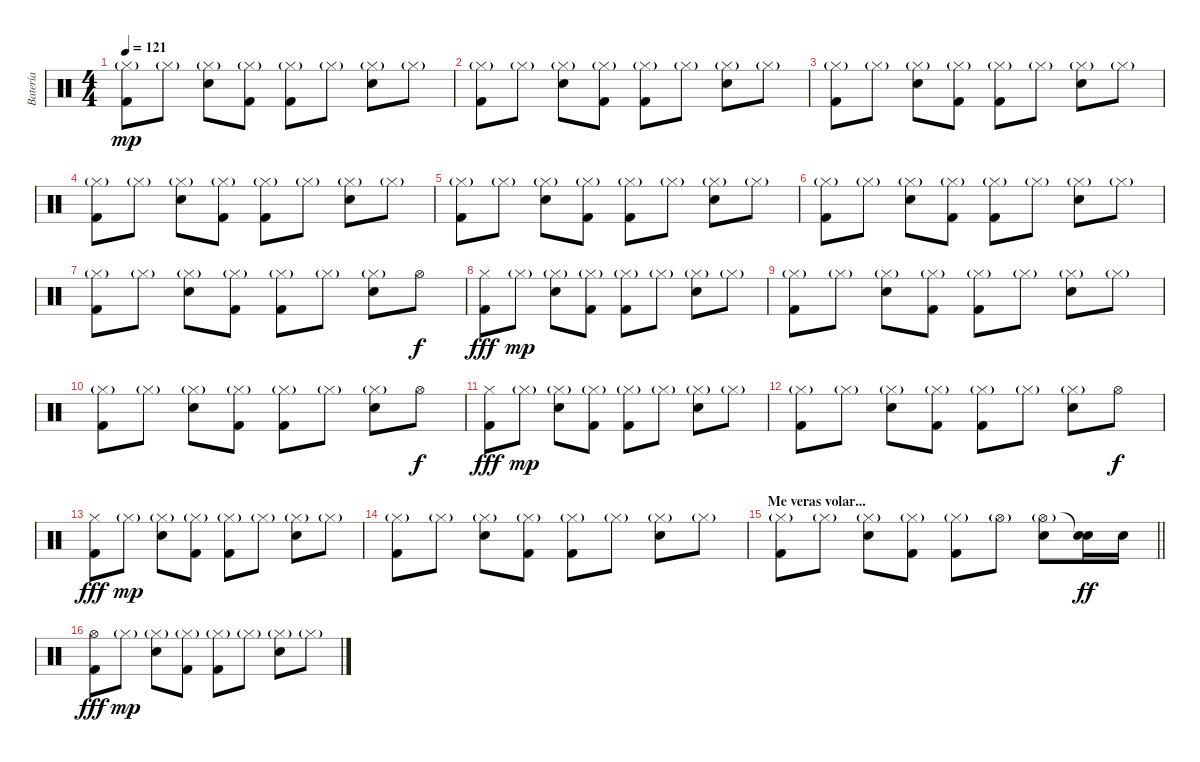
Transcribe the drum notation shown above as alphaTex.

\track ("Batería" "Batería") {instrument percussion}
\staff {score}
\articulation defaults
\ts (4 4)
\tempo 121
\clef neutral
\ks c
("Kick (hit) 2" "Hi-Hat (closed)"{g}).8{dy mp} "Hi-Hat (closed)"{g}.8 ("Snare (hit) 2" "Hi-Hat (closed)"{g}).8 ("Kick (hit) 2" "Hi-Hat (closed)"{g}).8 ("Kick (hit) 2" "Hi-Hat (closed)"{g}).8 "Hi-Hat (closed)"{g}.8 ("Snare (hit) 2" "Hi-Hat (closed)"{g}).8 "Hi-Hat (closed)"{g}.8 |
("Kick (hit) 2" "Hi-Hat (closed)"{g}).8 "Hi-Hat (closed)"{g}.8 ("Snare (hit) 2" "Hi-Hat (closed)"{g}).8 ("Kick (hit) 2" "Hi-Hat (closed)"{g}).8 ("Kick (hit) 2" "Hi-Hat (closed)"{g}).8 "Hi-Hat (closed)"{g}.8 ("Snare (hit) 2" "Hi-Hat (closed)"{g}).8 "Hi-Hat (closed)"{g}.8 |
("Kick (hit) 2" "Hi-Hat (closed)"{g}).8 "Hi-Hat (closed)"{g}.8 ("Snare (hit) 2" "Hi-Hat (closed)"{g}).8 ("Kick (hit) 2" "Hi-Hat (closed)"{g}).8 ("Kick (hit) 2" "Hi-Hat (closed)"{g}).8 "Hi-Hat (closed)"{g}.8 ("Snare (hit) 2" "Hi-Hat (closed)"{g}).8 "Hi-Hat (closed)"{g}.8 |
("Kick (hit) 2" "Hi-Hat (closed)"{g}).8 "Hi-Hat (closed)"{g}.8 ("Snare (hit) 2" "Hi-Hat (closed)"{g}).8 ("Kick (hit) 2" "Hi-Hat (closed)"{g}).8 ("Kick (hit) 2" "Hi-Hat (closed)"{g}).8 "Hi-Hat (closed)"{g}.8 ("Snare (hit) 2" "Hi-Hat (closed)"{g}).8 "Hi-Hat (closed)"{g}.8 |
("Kick (hit) 2" "Hi-Hat (closed)"{g}).8 "Hi-Hat (closed)"{g}.8 ("Snare (hit) 2" "Hi-Hat (closed)"{g}).8 ("Kick (hit) 2" "Hi-Hat (closed)"{g}).8 ("Kick (hit) 2" "Hi-Hat (closed)"{g}).8 "Hi-Hat (closed)"{g}.8 ("Snare (hit) 2" "Hi-Hat (closed)"{g}).8 "Hi-Hat (closed)"{g}.8 |
("Kick (hit) 2" "Hi-Hat (closed)"{g}).8 "Hi-Hat (closed)"{g}.8 ("Snare (hit) 2" "Hi-Hat (closed)"{g}).8 ("Kick (hit) 2" "Hi-Hat (closed)"{g}).8 ("Kick (hit) 2" "Hi-Hat (closed)"{g}).8 "Hi-Hat (closed)"{g}.8 ("Snare (hit) 2" "Hi-Hat (closed)"{g}).8 "Hi-Hat (closed)"{g}.8 |
("Kick (hit) 2" "Hi-Hat (closed)"{g}).8 "Hi-Hat (closed)"{g}.8 ("Snare (hit) 2" "Hi-Hat (closed)"{g}).8 ("Kick (hit) 2" "Hi-Hat (closed)"{g}).8 ("Kick (hit) 2" "Hi-Hat (closed)"{g}).8 "Hi-Hat (closed)"{g}.8 ("Snare (hit) 2" "Hi-Hat (closed)"{g}).8 "Hi-Hat (open)".8{dy f} |
("Kick (hit) 2" "Hi-Hat (closed)").8{dy fff} "Hi-Hat (closed)"{g}.8{dy mp} ("Snare (hit) 2" "Hi-Hat (closed)"{g}).8 ("Kick (hit) 2" "Hi-Hat (closed)"{g}).8 ("Kick (hit) 2" "Hi-Hat (closed)"{g}).8 "Hi-Hat (closed)"{g}.8 ("Snare (hit) 2" "Hi-Hat (closed)"{g}).8 "Hi-Hat (closed)"{g}.8 |
("Kick (hit) 2" "Hi-Hat (closed)"{g}).8 "Hi-Hat (closed)"{g}.8 ("Snare (hit) 2" "Hi-Hat (closed)"{g}).8 ("Kick (hit) 2" "Hi-Hat (closed)"{g}).8 ("Kick (hit) 2" "Hi-Hat (closed)"{g}).8 "Hi-Hat (closed)"{g}.8 ("Snare (hit) 2" "Hi-Hat (closed)"{g}).8 "Hi-Hat (closed)"{g}.8 |
("Kick (hit) 2" "Hi-Hat (closed)"{g}).8 "Hi-Hat (closed)"{g}.8 ("Snare (hit) 2" "Hi-Hat (closed)"{g}).8 ("Kick (hit) 2" "Hi-Hat (closed)"{g}).8 ("Kick (hit) 2" "Hi-Hat (closed)"{g}).8 "Hi-Hat (closed)"{g}.8 ("Snare (hit) 2" "Hi-Hat (closed)"{g}).8 "Hi-Hat (open)".8{dy f} |
("Kick (hit) 2" "Hi-Hat (closed)").8{dy fff} "Hi-Hat (closed)"{g}.8{dy mp} ("Snare (hit) 2" "Hi-Hat (closed)"{g}).8 ("Kick (hit) 2" "Hi-Hat (closed)"{g}).8 ("Kick (hit) 2" "Hi-Hat (closed)"{g}).8 "Hi-Hat (closed)"{g}.8 ("Snare (hit) 2" "Hi-Hat (closed)"{g}).8 "Hi-Hat (closed)"{g}.8 |
("Kick (hit) 2" "Hi-Hat (closed)"{g}).8 "Hi-Hat (closed)"{g}.8 ("Snare (hit) 2" "Hi-Hat (closed)"{g}).8 ("Kick (hit) 2" "Hi-Hat (closed)"{g}).8 ("Kick (hit) 2" "Hi-Hat (closed)"{g}).8 "Hi-Hat (closed)"{g}.8 ("Snare (hit) 2" "Hi-Hat (closed)"{g}).8 "Hi-Hat (open)".8{dy f} |
("Kick (hit) 2" "Hi-Hat (closed)").8{dy fff} "Hi-Hat (closed)"{g}.8{dy mp} ("Snare (hit) 2" "Hi-Hat (closed)"{g}).8 ("Kick (hit) 2" "Hi-Hat (closed)"{g}).8 ("Kick (hit) 2" "Hi-Hat (closed)"{g}).8 "Hi-Hat (closed)"{g}.8 ("Snare (hit) 2" "Hi-Hat (closed)"{g}).8 "Hi-Hat (closed)"{g}.8 |
("Kick (hit) 2" "Hi-Hat (closed)"{g}).8 "Hi-Hat (closed)"{g}.8 ("Snare (hit) 2" "Hi-Hat (closed)"{g}).8 ("Kick (hit) 2" "Hi-Hat (closed)"{g}).8 ("Kick (hit) 2" "Hi-Hat (closed)"{g}).8 "Hi-Hat (closed)"{g}.8 ("Snare (hit) 2" "Hi-Hat (closed)"{g}).8 "Hi-Hat (closed)"{g}.8 |
\section ("" "Me veras volar...")
\barLineRight lightlight
("Kick (hit) 2" "Hi-Hat (closed)"{g}).8 "Hi-Hat (closed)"{g}.8 ("Snare (hit) 2" "Hi-Hat (closed)"{g}).8 ("Kick (hit) 2" "Hi-Hat (closed)"{g}).8 ("Kick (hit) 2" "Hi-Hat (closed)"{g}).8 "Hi-Hat (open)"{g}.8 ("Snare (hit) 2" "Hi-Hat (open)"{g}).8 ("Snare (hit) 2" "Snare (hit)"{t}).16{dy ff} "Snare (hit) 2".16 |
("Kick (hit) 2" "Hi-Hat (open)").8{dy fff} "Hi-Hat (closed)"{g}.8{dy mp} ("Snare (hit) 2" "Hi-Hat (closed)"{g}).8 ("Kick (hit) 2" "Hi-Hat (closed)"{g}).8 ("Kick (hit) 2" "Hi-Hat (closed)"{g}).8 "Hi-Hat (closed)"{g}.8 ("Snare (hit) 2" "Hi-Hat (closed)"{g}).8 "Hi-Hat (closed)"{g}.8
